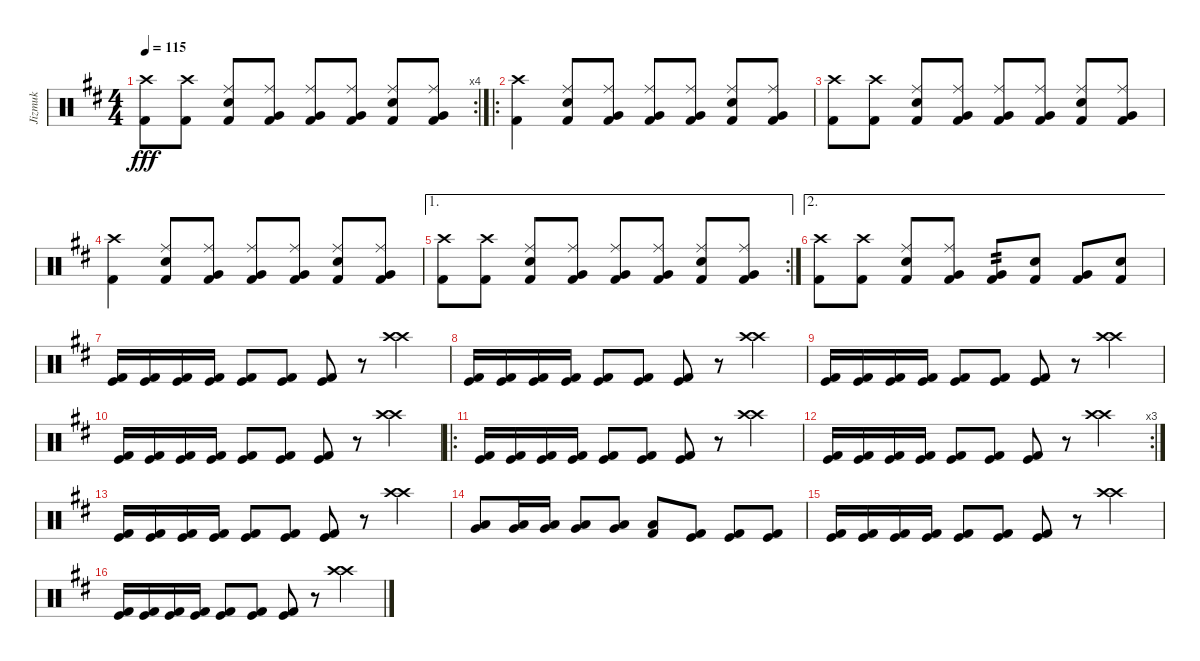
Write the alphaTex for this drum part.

\track ("Jizmuk" "Jizmuk") {instrument percussion}
\staff {score}
\articulation defaults
\rc 4
\ts (4 4)
\tempo 115
\clef neutral
\ks d
("Kick (hit) 2" "Crash high (hit)").8{dy fff} ("Kick (hit) 2" "Crash high (hit)").8 ("Ride (middle)" "Snare (hit) 2" "Kick (hit) 2").8 ("Ride (middle)" "Very Low Tom (hit)" "Kick (hit) 2").8 ("Ride (middle)" "Very Low Tom (hit)" "Kick (hit) 2").8 ("Ride (middle)" "Very Low Tom (hit)" "Kick (hit) 2").8 ("Ride (middle)" "Snare (hit) 2" "Kick (hit) 2").8 ("Ride (middle)" "Very Low Tom (hit)" "Kick (hit) 2").8 |
\ro
("Crash high (hit)" "Kick (hit) 2").4 ("Ride (middle)" "Snare (hit) 2" "Kick (hit) 2").8 ("Ride (middle)" "Very Low Tom (hit)" "Kick (hit) 2").8 ("Ride (middle)" "Very Low Tom (hit)" "Kick (hit) 2").8 ("Ride (middle)" "Very Low Tom (hit)" "Kick (hit) 2").8 ("Ride (middle)" "Snare (hit) 2" "Kick (hit) 2").8 ("Ride (middle)" "Very Low Tom (hit)" "Kick (hit) 2").8 |
("Kick (hit) 2" "Crash high (hit)").8 ("Kick (hit) 2" "Crash high (hit)").8 ("Ride (middle)" "Snare (hit) 2" "Kick (hit) 2").8 ("Ride (middle)" "Very Low Tom (hit)" "Kick (hit) 2").8 ("Ride (middle)" "Very Low Tom (hit)" "Kick (hit) 2").8 ("Ride (middle)" "Very Low Tom (hit)" "Kick (hit) 2").8 ("Ride (middle)" "Snare (hit) 2" "Kick (hit) 2").8 ("Ride (middle)" "Very Low Tom (hit)" "Kick (hit) 2").8 |
("Crash high (hit)" "Kick (hit) 2").4 ("Ride (middle)" "Snare (hit) 2" "Kick (hit) 2").8 ("Ride (middle)" "Very Low Tom (hit)" "Kick (hit) 2").8 ("Ride (middle)" "Very Low Tom (hit)" "Kick (hit) 2").8 ("Ride (middle)" "Very Low Tom (hit)" "Kick (hit) 2").8 ("Ride (middle)" "Snare (hit) 2" "Kick (hit) 2").8 ("Ride (middle)" "Very Low Tom (hit)" "Kick (hit) 2").8 |
\ae 1
\rc 2
("Kick (hit) 2" "Crash high (hit)").8 ("Kick (hit) 2" "Crash high (hit)").8 ("Ride (middle)" "Snare (hit) 2" "Kick (hit) 2").8 ("Ride (middle)" "Very Low Tom (hit)" "Kick (hit) 2").8 ("Ride (middle)" "Very Low Tom (hit)" "Kick (hit) 2").8 ("Ride (middle)" "Very Low Tom (hit)" "Kick (hit) 2").8 ("Ride (middle)" "Snare (hit) 2" "Kick (hit) 2").8 ("Ride (middle)" "Very Low Tom (hit)" "Kick (hit) 2").8 |
\ae 2
("Kick (hit) 2" "Crash high (hit)").8 ("Kick (hit) 2" "Crash high (hit)").8 ("Ride (middle)" "Snare (hit) 2" "Kick (hit) 2").8 ("Ride (middle)" "Very Low Tom (hit)" "Kick (hit) 2").8 ("Very Low Tom (hit)" "Kick (hit) 2").8{tp 2} ("Snare (hit) 2" "Kick (hit) 2").8 ("Very Low Tom (hit)" "Kick (hit) 2").8 ("Snare (hit) 2" "Kick (hit) 2").8 |
("Kick (hit)" "Kick (hit) 2").16 ("Kick (hit)" "Kick (hit) 2").16 ("Kick (hit)" "Kick (hit) 2").16 ("Kick (hit)" "Kick (hit) 2").16 ("Kick (hit)" "Kick (hit) 2").8 ("Kick (hit)" "Kick (hit) 2").8 ("Kick (hit)" "Kick (hit) 2").8 r.8 ("Crash high (hit)" "Crash high (hit)").4 |
("Kick (hit)" "Kick (hit) 2").16 ("Kick (hit)" "Kick (hit) 2").16 ("Kick (hit)" "Kick (hit) 2").16 ("Kick (hit)" "Kick (hit) 2").16 ("Kick (hit)" "Kick (hit) 2").8 ("Kick (hit)" "Kick (hit) 2").8 ("Kick (hit)" "Kick (hit) 2").8 r.8 ("Crash high (hit)" "Crash high (hit)").4 |
("Kick (hit)" "Kick (hit) 2").16 ("Kick (hit)" "Kick (hit) 2").16 ("Kick (hit)" "Kick (hit) 2").16 ("Kick (hit)" "Kick (hit) 2").16 ("Kick (hit)" "Kick (hit) 2").8 ("Kick (hit)" "Kick (hit) 2").8 ("Kick (hit)" "Kick (hit) 2").8 r.8 ("Crash high (hit)" "Crash high (hit)").4 |
("Kick (hit)" "Kick (hit) 2").16 ("Kick (hit)" "Kick (hit) 2").16 ("Kick (hit)" "Kick (hit) 2").16 ("Kick (hit)" "Kick (hit) 2").16 ("Kick (hit)" "Kick (hit) 2").8 ("Kick (hit)" "Kick (hit) 2").8 ("Kick (hit)" "Kick (hit) 2").8 r.8 ("Crash high (hit)" "Crash high (hit)").4 |
\ro
("Kick (hit)" "Kick (hit) 2").16 ("Kick (hit)" "Kick (hit) 2").16 ("Kick (hit)" "Kick (hit) 2").16 ("Kick (hit)" "Kick (hit) 2").16 ("Kick (hit)" "Kick (hit) 2").8 ("Kick (hit)" "Kick (hit) 2").8 ("Kick (hit)" "Kick (hit) 2").8 r.8 ("Crash high (hit)" "Crash high (hit)").4 |
\rc 3
("Kick (hit)" "Kick (hit) 2").16 ("Kick (hit)" "Kick (hit) 2").16 ("Kick (hit)" "Kick (hit) 2").16 ("Kick (hit)" "Kick (hit) 2").16 ("Kick (hit)" "Kick (hit) 2").8 ("Kick (hit)" "Kick (hit) 2").8 ("Kick (hit)" "Kick (hit) 2").8 r.8 ("Crash high (hit)" "Crash high (hit)").4 |
("Kick (hit)" "Kick (hit) 2").16 ("Kick (hit)" "Kick (hit) 2").16 ("Kick (hit)" "Kick (hit) 2").16 ("Kick (hit)" "Kick (hit) 2").16 ("Kick (hit)" "Kick (hit) 2").8 ("Kick (hit)" "Kick (hit) 2").8 ("Kick (hit)" "Kick (hit) 2").8 r.8 ("Crash high (hit)" "Crash high (hit)").4 |
("Low Tom (hit)" "Very Low Tom (hit)").8 ("Low Tom (hit)" "Very Low Tom (hit)").16 ("Low Tom (hit)" "Very Low Tom (hit)").16 ("Low Tom (hit)" "Very Low Tom (hit)").8 ("Very Low Tom (hit)" "Low Floor Tom (hit)").8 ("Low Floor Tom (hit)" "Kick (hit) 2").8 ("Kick (hit) 2" "Kick (hit)").8 ("Kick (hit) 2" "Kick (hit)").8 ("Kick (hit) 2" "Kick (hit)").8 |
("Kick (hit)" "Kick (hit) 2").16 ("Kick (hit)" "Kick (hit) 2").16 ("Kick (hit)" "Kick (hit) 2").16 ("Kick (hit)" "Kick (hit) 2").16 ("Kick (hit)" "Kick (hit) 2").8 ("Kick (hit)" "Kick (hit) 2").8 ("Kick (hit)" "Kick (hit) 2").8 r.8 ("Crash high (hit)" "Crash high (hit)").4 |
("Kick (hit)" "Kick (hit) 2").16 ("Kick (hit)" "Kick (hit) 2").16 ("Kick (hit)" "Kick (hit) 2").16 ("Kick (hit)" "Kick (hit) 2").16 ("Kick (hit)" "Kick (hit) 2").8 ("Kick (hit)" "Kick (hit) 2").8 ("Kick (hit)" "Kick (hit) 2").8 r.8 ("Crash high (hit)" "Crash high (hit)").4
